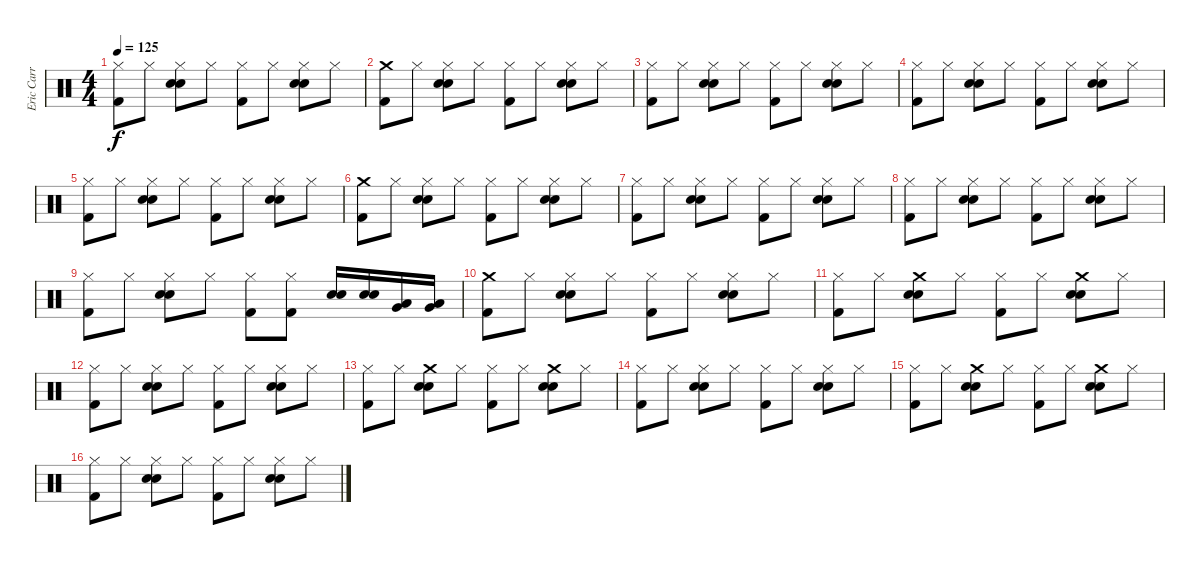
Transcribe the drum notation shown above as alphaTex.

\track ("Eric Carr" "Eric Carr") {instrument percussion}
\staff {score}
\articulation defaults
\ts (4 4)
\tempo 125
\clef neutral
\ks c
("Hi-Hat (closed)" "Kick (hit) 2").8{dy f} "Hi-Hat (closed)".8 ("Hi-Hat (closed)" "Electric Snare (hit)" "Snare (hit) 2").8 "Hi-Hat (closed)".8 ("Hi-Hat (closed)" "Kick (hit) 2").8 "Hi-Hat (closed)".8 ("Hi-Hat (closed)" "Snare (hit) 2" "Electric Snare (hit)").8 "Hi-Hat (closed)".8 |
("Crash medium (hit)" "Kick (hit) 2").8 "Hi-Hat (closed)".8 ("Hi-Hat (closed)" "Electric Snare (hit)" "Snare (hit) 2").8 "Hi-Hat (closed)".8 ("Hi-Hat (closed)" "Kick (hit) 2").8 "Hi-Hat (closed)".8 ("Hi-Hat (closed)" "Snare (hit) 2" "Electric Snare (hit)").8 "Hi-Hat (closed)".8 |
("Hi-Hat (closed)" "Kick (hit) 2").8 "Hi-Hat (closed)".8 ("Hi-Hat (closed)" "Electric Snare (hit)" "Snare (hit) 2").8 "Hi-Hat (closed)".8 ("Hi-Hat (closed)" "Kick (hit) 2").8 "Hi-Hat (closed)".8 ("Hi-Hat (closed)" "Snare (hit) 2" "Electric Snare (hit)").8 "Hi-Hat (closed)".8 |
("Hi-Hat (closed)" "Kick (hit) 2").8 "Hi-Hat (closed)".8 ("Hi-Hat (closed)" "Electric Snare (hit)" "Snare (hit) 2").8 "Hi-Hat (closed)".8 ("Hi-Hat (closed)" "Kick (hit) 2").8 "Hi-Hat (closed)".8 ("Hi-Hat (closed)" "Snare (hit) 2" "Electric Snare (hit)").8 "Hi-Hat (closed)".8 |
("Hi-Hat (closed)" "Kick (hit) 2").8 "Hi-Hat (closed)".8 ("Hi-Hat (closed)" "Electric Snare (hit)" "Snare (hit) 2").8 "Hi-Hat (closed)".8 ("Hi-Hat (closed)" "Kick (hit) 2").8 "Hi-Hat (closed)".8 ("Hi-Hat (closed)" "Snare (hit) 2" "Electric Snare (hit)").8 "Hi-Hat (closed)".8 |
("Crash medium (hit)" "Kick (hit) 2").8 "Hi-Hat (closed)".8 ("Hi-Hat (closed)" "Electric Snare (hit)" "Snare (hit) 2").8 "Hi-Hat (closed)".8 ("Hi-Hat (closed)" "Kick (hit) 2").8 "Hi-Hat (closed)".8 ("Hi-Hat (closed)" "Snare (hit) 2" "Electric Snare (hit)").8 "Hi-Hat (closed)".8 |
("Hi-Hat (closed)" "Kick (hit) 2").8 "Hi-Hat (closed)".8 ("Hi-Hat (closed)" "Electric Snare (hit)" "Snare (hit) 2").8 "Hi-Hat (closed)".8 ("Hi-Hat (closed)" "Kick (hit) 2").8 "Hi-Hat (closed)".8 ("Hi-Hat (closed)" "Snare (hit) 2" "Electric Snare (hit)").8 "Hi-Hat (closed)".8 |
("Hi-Hat (closed)" "Kick (hit) 2").8 "Hi-Hat (closed)".8 ("Hi-Hat (closed)" "Electric Snare (hit)" "Snare (hit) 2").8 "Hi-Hat (closed)".8 ("Hi-Hat (closed)" "Kick (hit) 2").8 "Hi-Hat (closed)".8 ("Hi-Hat (closed)" "Snare (hit) 2" "Electric Snare (hit)").8 "Hi-Hat (closed)".8 |
("Hi-Hat (closed)" "Kick (hit) 2").8 "Hi-Hat (closed)".8 ("Hi-Hat (closed)" "Electric Snare (hit)" "Snare (hit) 2").8 "Hi-Hat (closed)".8 ("Hi-Hat (closed)" "Kick (hit) 2").8 ("Kick (hit) 2" "Hi-Hat (closed)").8 ("Snare (hit) 2" "Electric Snare (hit)").16 ("Electric Snare (hit)" "Snare (hit) 2").16 ("Very Low Tom (hit)" "Low Tom (hit)").16 ("Very Low Tom (hit)" "Low Tom (hit)").16 |
("Crash medium (hit)" "Kick (hit) 2").8 "Hi-Hat (closed)".8 ("Hi-Hat (closed)" "Electric Snare (hit)" "Snare (hit) 2").8 "Hi-Hat (closed)".8 ("Hi-Hat (closed)" "Kick (hit) 2").8 "Hi-Hat (closed)".8 ("Hi-Hat (closed)" "Snare (hit) 2" "Electric Snare (hit)").8 "Hi-Hat (closed)".8 |
("Hi-Hat (closed)" "Kick (hit) 2").8 "Hi-Hat (closed)".8 ("Crash medium (hit)" "Electric Snare (hit)" "Snare (hit) 2").8 "Hi-Hat (closed)".8 ("Hi-Hat (closed)" "Kick (hit) 2").8 "Hi-Hat (closed)".8 ("Crash medium (hit)" "Snare (hit) 2" "Electric Snare (hit)").8 "Hi-Hat (closed)".8 |
("Hi-Hat (closed)" "Kick (hit) 2").8 "Hi-Hat (closed)".8 ("Hi-Hat (closed)" "Electric Snare (hit)" "Snare (hit) 2").8 "Hi-Hat (closed)".8 ("Hi-Hat (closed)" "Kick (hit) 2").8 "Hi-Hat (closed)".8 ("Hi-Hat (closed)" "Snare (hit) 2" "Electric Snare (hit)").8 "Hi-Hat (closed)".8 |
("Hi-Hat (closed)" "Kick (hit) 2").8 "Hi-Hat (closed)".8 ("Crash medium (hit)" "Electric Snare (hit)" "Snare (hit) 2").8 "Hi-Hat (closed)".8 ("Hi-Hat (closed)" "Kick (hit) 2").8 "Hi-Hat (closed)".8 ("Crash medium (hit)" "Snare (hit) 2" "Electric Snare (hit)").8 "Hi-Hat (closed)".8 |
("Hi-Hat (closed)" "Kick (hit) 2").8 "Hi-Hat (closed)".8 ("Hi-Hat (closed)" "Electric Snare (hit)" "Snare (hit) 2").8 "Hi-Hat (closed)".8 ("Hi-Hat (closed)" "Kick (hit) 2").8 "Hi-Hat (closed)".8 ("Hi-Hat (closed)" "Snare (hit) 2" "Electric Snare (hit)").8 "Hi-Hat (closed)".8 |
("Hi-Hat (closed)" "Kick (hit) 2").8 "Hi-Hat (closed)".8 ("Crash medium (hit)" "Electric Snare (hit)" "Snare (hit) 2").8 "Hi-Hat (closed)".8 ("Hi-Hat (closed)" "Kick (hit) 2").8 "Hi-Hat (closed)".8 ("Crash medium (hit)" "Snare (hit) 2" "Electric Snare (hit)").8 "Hi-Hat (closed)".8 |
("Hi-Hat (closed)" "Kick (hit) 2").8 "Hi-Hat (closed)".8 ("Hi-Hat (closed)" "Electric Snare (hit)" "Snare (hit) 2").8 "Hi-Hat (closed)".8 ("Hi-Hat (closed)" "Kick (hit) 2").8 "Hi-Hat (closed)".8 ("Hi-Hat (closed)" "Snare (hit) 2" "Electric Snare (hit)").8 "Hi-Hat (closed)".8
